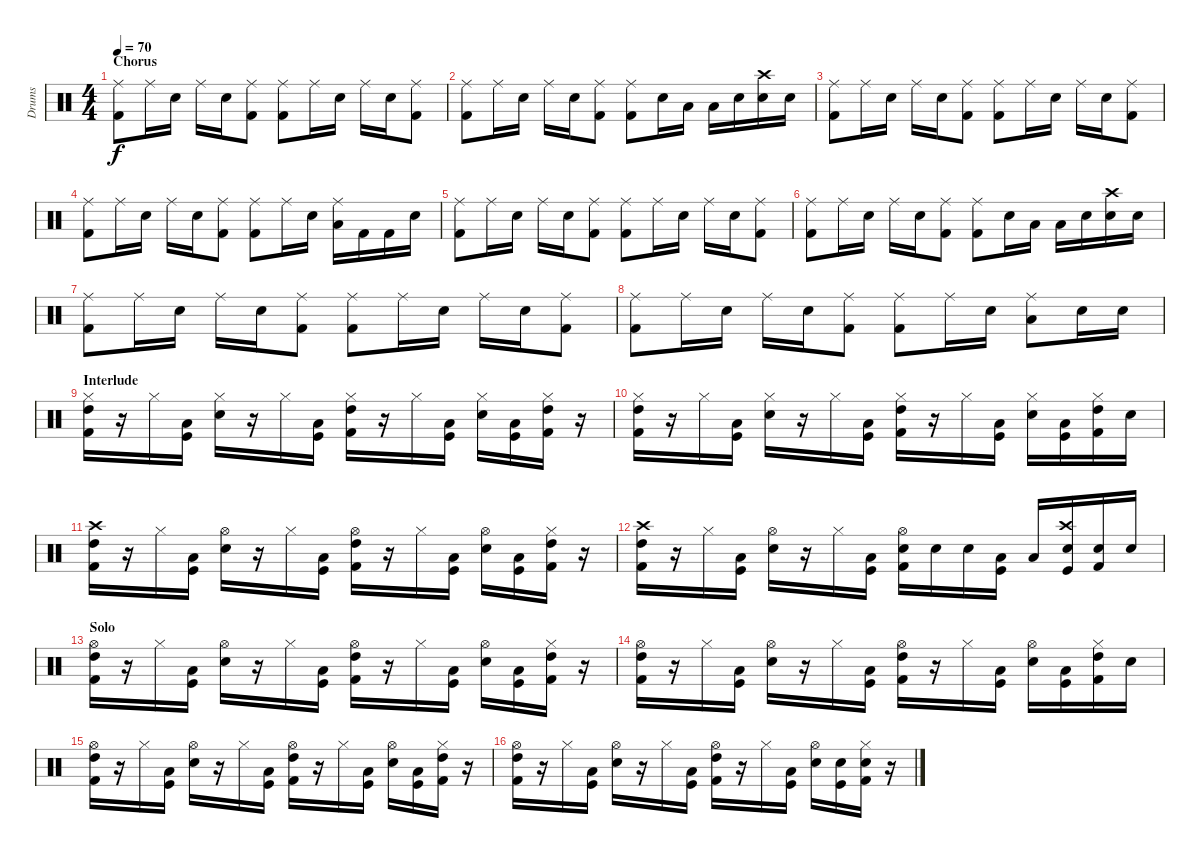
\track ("Drums" "Drums") {instrument percussion}
\staff {score}
\articulation defaults
\ts (4 4)
\section ("" "Chorus")
\tempo 70
\clef neutral
\ks c
("Ride (middle)" "Kick (hit) 2").8{dy f} "Ride (middle)".16 "Snare (hit) 2".16 "Ride (middle)".16 "Snare (hit) 2".16 ("Ride (middle)" "Kick (hit) 2").8 ("Ride (middle)" "Kick (hit) 2").8 "Ride (middle)".16 "Snare (hit) 2".16 "Ride (middle)".16 "Snare (hit) 2".16 ("Ride (middle)" "Kick (hit) 2").8 |
("Ride (middle)" "Kick (hit) 2").8 "Ride (middle)".16 "Snare (hit) 2".16 "Ride (middle)".16 "Snare (hit) 2".16 ("Ride (middle)" "Kick (hit) 2").8 ("Ride (middle)" "Kick (hit) 2").8 "Snare (hit) 2".16 "Low Tom (hit)".16 "Low Tom (hit)".16 "Snare (hit) 2".16 ("Crash high (hit)" "Snare (hit) 2").16 "Snare (hit) 2".16 |
("Ride (middle)" "Kick (hit) 2").8 "Ride (middle)".16 "Snare (hit) 2".16 "Ride (middle)".16 "Snare (hit) 2".16 ("Ride (middle)" "Kick (hit) 2").8 ("Ride (middle)" "Kick (hit) 2").8 "Ride (middle)".16 "Snare (hit) 2".16 "Ride (middle)".16 "Snare (hit) 2".16 ("Ride (middle)" "Kick (hit) 2").8 |
("Ride (middle)" "Kick (hit) 2").8 "Ride (middle)".16 "Snare (hit) 2".16 "Ride (middle)".16 "Snare (hit) 2".16 ("Ride (middle)" "Kick (hit) 2").8 ("Ride (middle)" "Kick (hit) 2").8 "Ride (middle)".16 "Snare (hit) 2".16 ("Ride (middle)" "Low Tom (hit)").16 "Kick (hit) 2".16 "Kick (hit) 2".16 "Snare (hit) 2".16 |
("Ride (middle)" "Kick (hit) 2").8 "Ride (middle)".16 "Snare (hit) 2".16 "Ride (middle)".16 "Snare (hit) 2".16 ("Ride (middle)" "Kick (hit) 2").8 ("Ride (middle)" "Kick (hit) 2").8 "Ride (middle)".16 "Snare (hit) 2".16 "Ride (middle)".16 "Snare (hit) 2".16 ("Ride (middle)" "Kick (hit) 2").8 |
("Ride (middle)" "Kick (hit) 2").8 "Ride (middle)".16 "Snare (hit) 2".16 "Ride (middle)".16 "Snare (hit) 2".16 ("Ride (middle)" "Kick (hit) 2").8 ("Ride (middle)" "Kick (hit) 2").8 "Snare (hit) 2".16 "Low Tom (hit)".16 "Low Tom (hit)".16 "Snare (hit) 2".16 ("Crash high (hit)" "Snare (hit) 2").16 "Snare (hit) 2".16 |
("Ride (middle)" "Kick (hit) 2").8 "Ride (middle)".16 "Snare (hit) 2".16 "Ride (middle)".16 "Snare (hit) 2".16 ("Ride (middle)" "Kick (hit) 2").8 ("Ride (middle)" "Kick (hit) 2").8 "Ride (middle)".16 "Snare (hit) 2".16 "Ride (middle)".16 "Snare (hit) 2".16 ("Ride (middle)" "Kick (hit) 2").8 |
("Ride (middle)" "Kick (hit) 2").8 "Ride (middle)".16 "Snare (hit) 2".16 "Ride (middle)".16 "Snare (hit) 2".16 ("Ride (middle)" "Kick (hit) 2").8 ("Ride (middle)" "Kick (hit) 2").8 "Ride (middle)".16 "Snare (hit) 2".16 ("Ride (middle)" "Low Tom (hit)").8 "Snare (hit) 2".16 "Snare (hit) 2".16 |
\section ("" "Interlude")
("Hi-Hat (closed)" "High Tom (hit)" "Kick (hit) 2").16 r.16 "Hi-Hat (closed)".16 ("Low Tom (hit)" "Kick (hit)").16 ("Hi-Hat (closed)" "Snare (hit) 2").16 r.16 "Hi-Hat (closed)".16 ("Low Tom (hit)" "Kick (hit)").16 ("Hi-Hat (closed)" "High Tom (hit)" "Kick (hit) 2").16 r.16 "Hi-Hat (closed)".16 ("Low Tom (hit)" "Kick (hit)").16 ("Hi-Hat (closed)" "Snare (hit) 2").16 ("Low Tom (hit)" "Kick (hit)").16 ("Hi-Hat (closed)" "High Tom (hit)" "Kick (hit) 2").16 r.16 |
("Hi-Hat (closed)" "High Tom (hit)" "Kick (hit) 2").16 r.16 "Hi-Hat (closed)".16 ("Low Tom (hit)" "Kick (hit)").16 ("Hi-Hat (closed)" "Snare (hit) 2").16 r.16 "Hi-Hat (closed)".16 ("Low Tom (hit)" "Kick (hit)").16 ("Hi-Hat (closed)" "High Tom (hit)" "Kick (hit) 2").16 r.16 "Hi-Hat (closed)".16 ("Low Tom (hit)" "Kick (hit)").16 ("Hi-Hat (closed)" "Snare (hit) 2").16 ("Low Tom (hit)" "Kick (hit)").16 ("Hi-Hat (closed)" "High Tom (hit)" "Kick (hit) 2").16 "Snare (hit) 2".16 |
("Crash high (hit)" "High Tom (hit)" "Kick (hit) 2").16 r.16 "Hi-Hat (closed)".16 ("Low Tom (hit)" "Kick (hit)").16 ("Hi-Hat (open)" "Snare (hit) 2").16 r.16 "Hi-Hat (closed)".16 ("Low Tom (hit)" "Kick (hit)").16 ("Hi-Hat (open)" "High Tom (hit)" "Kick (hit) 2").16 r.16 "Hi-Hat (closed)".16 ("Low Tom (hit)" "Kick (hit)").16 ("Hi-Hat (open)" "Snare (hit) 2").16 ("Low Tom (hit)" "Kick (hit)").16 ("Hi-Hat (closed)" "High Tom (hit)" "Kick (hit) 2").16 r.16 |
("Crash high (hit)" "High Tom (hit)" "Kick (hit) 2").16 r.16 "Hi-Hat (closed)".16 ("Low Tom (hit)" "Kick (hit)").16 ("Hi-Hat (open)" "Snare (hit) 2").16 r.16 "Hi-Hat (closed)".16 ("Low Tom (hit)" "Kick (hit)").16 ("Hi-Hat (open)" "Snare (hit) 2" "Kick (hit) 2").16 "Snare (hit) 2".16 "Snare (hit) 2".16 ("Low Tom (hit)" "Kick (hit)").16 "Low Tom (hit)".16 ("Crash high (hit)" "Snare (hit) 2" "Kick (hit)").16 ("Snare (hit) 2" "Kick (hit) 2").16 "Snare (hit) 2".16 |
\section ("" "Solo")
("Hi-Hat (open)" "High Tom (hit)" "Kick (hit) 2").16 r.16 "Hi-Hat (closed)".16 ("Low Tom (hit)" "Kick (hit)").16 ("Hi-Hat (open)" "Snare (hit) 2").16 r.16 "Hi-Hat (closed)".16 ("Low Tom (hit)" "Kick (hit)").16 ("Hi-Hat (open)" "High Tom (hit)" "Kick (hit) 2").16 r.16 "Hi-Hat (closed)".16 ("Low Tom (hit)" "Kick (hit)").16 ("Hi-Hat (open)" "Snare (hit) 2").16 ("Low Tom (hit)" "Kick (hit)").16 ("Hi-Hat (closed)" "High Tom (hit)" "Kick (hit) 2").16 r.16 |
("Hi-Hat (open)" "High Tom (hit)" "Kick (hit) 2").16 r.16 "Hi-Hat (closed)".16 ("Low Tom (hit)" "Kick (hit)").16 ("Hi-Hat (open)" "Snare (hit) 2").16 r.16 "Hi-Hat (closed)".16 ("Low Tom (hit)" "Kick (hit)").16 ("Hi-Hat (open)" "High Tom (hit)" "Kick (hit) 2").16 r.16 "Hi-Hat (closed)".16 ("Low Tom (hit)" "Kick (hit)").16 ("Hi-Hat (open)" "Snare (hit) 2").16 ("Low Tom (hit)" "Kick (hit)").16 ("Hi-Hat (closed)" "High Tom (hit)" "Kick (hit) 2").16 "Snare (hit) 2".16 |
("Hi-Hat (open)" "High Tom (hit)" "Kick (hit) 2").16 r.16 "Hi-Hat (closed)".16 ("Low Tom (hit)" "Kick (hit)").16 ("Hi-Hat (open)" "Snare (hit) 2").16 r.16 "Hi-Hat (closed)".16 ("Low Tom (hit)" "Kick (hit)").16 ("Hi-Hat (open)" "High Tom (hit)" "Kick (hit) 2").16 r.16 "Hi-Hat (closed)".16 ("Low Tom (hit)" "Kick (hit)").16 ("Hi-Hat (open)" "Snare (hit) 2").16 ("Low Tom (hit)" "Kick (hit)").16 ("Hi-Hat (closed)" "High Tom (hit)" "Kick (hit) 2").16 r.16 |
("Hi-Hat (open)" "High Tom (hit)" "Kick (hit) 2").16 r.16 "Hi-Hat (closed)".16 ("Low Tom (hit)" "Kick (hit)").16 ("Hi-Hat (open)" "Snare (hit) 2").16 r.16 "Hi-Hat (closed)".16 ("Low Tom (hit)" "Kick (hit)").16 ("Hi-Hat (open)" "High Tom (hit)" "Kick (hit) 2").16 r.16 "Hi-Hat (closed)".16 ("Low Tom (hit)" "Kick (hit)").16 ("Hi-Hat (open)" "Snare (hit) 2").16 ("Snare (hit) 2" "Kick (hit)").16 ("Hi-Hat (closed)" "Snare (hit) 2" "Kick (hit) 2").16 r.16
